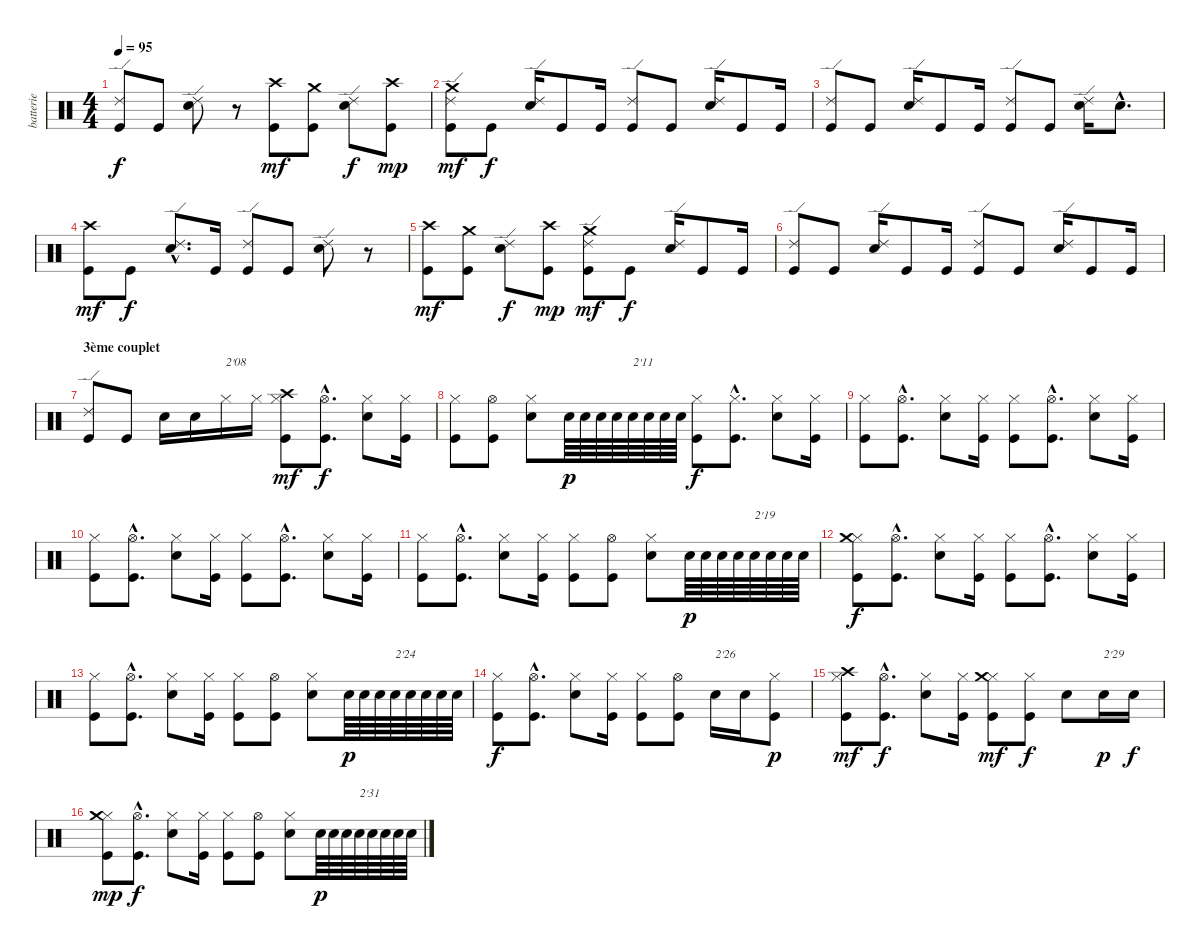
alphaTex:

\track ("batterie" "batterie") {instrument percussion}
\staff {score}
\articulation defaults
\ts (4 4)
\tempo 95
\clef neutral
\ks c
("Ride (edge) 2" "Kick (hit)").8{dy f} "Kick (hit)".8 ("Ride (edge) 2" "Electric Snare (hit)").8 r.8 ("Kick (hit)" "Crash high (hit)").8{dy mf} ("Kick (hit)" "Crash medium (hit)").8 ("Ride (edge) 2" "Electric Snare (hit)").8{dy f} ("Kick (hit)" "Crash high (hit)").8{dy mp} |
("Ride (edge) 2" "Kick (hit)" "Crash medium (hit)").8{dy mf} "Kick (hit)".8{dy f} ("Ride (edge) 2" "Electric Snare (hit)").16 "Kick (hit)".8 "Kick (hit)".16 ("Ride (edge) 2" "Kick (hit)").8 "Kick (hit)".8 ("Ride (edge) 2" "Electric Snare (hit)").16 "Kick (hit)".8 "Kick (hit)".16 |
("Ride (edge) 2" "Kick (hit)").8 "Kick (hit)".8 ("Ride (edge) 2" "Electric Snare (hit)").16 "Kick (hit)".8 "Kick (hit)".16 ("Ride (edge) 2" "Kick (hit)").8 "Kick (hit)".8 ("Ride (edge) 2" "Electric Snare (hit)").16 "Electric Snare (hit)"{hac}.8{d} |
("Kick (hit)" "Crash high (hit)").8{dy mf} "Kick (hit)".8{dy f} ("Ride (edge) 2"{hac} "Electric Snare (hit)"{hac}).8{d} "Kick (hit)".16 ("Ride (edge) 2" "Kick (hit)").8 "Kick (hit)".8 ("Ride (edge) 2" "Electric Snare (hit)").8 r.8 |
("Kick (hit)" "Crash high (hit)").8{dy mf} ("Kick (hit)" "Crash medium (hit)").8 ("Ride (edge) 2" "Electric Snare (hit)").8{dy f} ("Kick (hit)" "Crash high (hit)").8{dy mp} ("Ride (edge) 2" "Kick (hit)" "Crash medium (hit)").8{dy mf} "Kick (hit)".8{dy f} ("Ride (edge) 2" "Electric Snare (hit)").16 "Kick (hit)".8 "Kick (hit)".16 |
("Ride (edge) 2" "Kick (hit)").8 "Kick (hit)".8 ("Ride (edge) 2" "Electric Snare (hit)").16 "Kick (hit)".8 "Kick (hit)".16 ("Ride (edge) 2" "Kick (hit)").8 "Kick (hit)".8 ("Ride (edge) 2" "Electric Snare (hit)").16 "Kick (hit)".8 "Kick (hit)".16 |
\section ("" "3ème couplet")
("Ride (edge) 2" "Kick (hit)").8 "Kick (hit)".8 "Electric Snare (hit)".16 "Electric Snare (hit)".16 "Hi-Hat (closed)".16{txt "2'08"} "Hi-Hat (closed)".16 ("Hi-Hat (closed)" "Kick (hit)" "Crash high (hit)").8{dy mf} ("Hi-Hat (open)"{hac} "Kick (hit)"{hac}).8{d dy f} ("Hi-Hat (closed)" "Electric Snare (hit)").8 ("Hi-Hat (closed)" "Kick (hit)").16 |
("Hi-Hat (closed)" "Kick (hit)").8 ("Hi-Hat (open)" "Kick (hit)").8 ("Hi-Hat (closed)" "Electric Snare (hit)").8 "Electric Snare (hit)".64{dy p} "Electric Snare (hit)".64 "Electric Snare (hit)".64 "Electric Snare (hit)".64 "Electric Snare (hit)".64{txt "2'11"} "Electric Snare (hit)".64 "Electric Snare (hit)".64 "Electric Snare (hit)".64 ("Hi-Hat (closed)" "Kick (hit)").8{dy f} ("Hi-Hat (closed)"{hac} "Kick (hit)"{hac}).8{d} ("Hi-Hat (closed)" "Electric Snare (hit)").8 ("Hi-Hat (closed)" "Kick (hit)").16 |
("Hi-Hat (closed)" "Kick (hit)").8 ("Hi-Hat (open)"{hac} "Kick (hit)"{hac}).8{d} ("Hi-Hat (closed)" "Electric Snare (hit)").8 ("Hi-Hat (closed)" "Kick (hit)").16 ("Hi-Hat (closed)" "Kick (hit)").8 ("Hi-Hat (open)"{hac} "Kick (hit)"{hac}).8{d} ("Hi-Hat (closed)" "Electric Snare (hit)").8 ("Hi-Hat (closed)" "Kick (hit)").16 |
("Hi-Hat (closed)" "Kick (hit)").8 ("Hi-Hat (open)"{hac} "Kick (hit)"{hac}).8{d} ("Hi-Hat (closed)" "Electric Snare (hit)").8 ("Hi-Hat (closed)" "Kick (hit)").16 ("Hi-Hat (closed)" "Kick (hit)").8 ("Hi-Hat (open)"{hac} "Kick (hit)"{hac}).8{d} ("Hi-Hat (closed)" "Electric Snare (hit)").8 ("Hi-Hat (closed)" "Kick (hit)").16 |
("Hi-Hat (closed)" "Kick (hit)").8 ("Hi-Hat (open)"{hac} "Kick (hit)"{hac}).8{d} ("Hi-Hat (closed)" "Electric Snare (hit)").8 ("Hi-Hat (closed)" "Kick (hit)").16 ("Hi-Hat (closed)" "Kick (hit)").8 ("Hi-Hat (open)" "Kick (hit)").8 ("Hi-Hat (closed)" "Electric Snare (hit)").8 "Electric Snare (hit)".64{dy p} "Electric Snare (hit)".64 "Electric Snare (hit)".64 "Electric Snare (hit)".64 "Electric Snare (hit)".64{txt "2'19"} "Electric Snare (hit)".64 "Electric Snare (hit)".64 "Electric Snare (hit)".64 |
("Hi-Hat (closed)" "Kick (hit)" "Crash medium (hit)").8{dy f} ("Hi-Hat (open)"{hac} "Kick (hit)"{hac}).8{d} ("Hi-Hat (closed)" "Electric Snare (hit)").8 ("Hi-Hat (closed)" "Kick (hit)").16 ("Hi-Hat (closed)" "Kick (hit)").8 ("Hi-Hat (open)"{hac} "Kick (hit)"{hac}).8{d} ("Hi-Hat (closed)" "Electric Snare (hit)").8 ("Hi-Hat (closed)" "Kick (hit)").16 |
("Hi-Hat (closed)" "Kick (hit)").8 ("Hi-Hat (open)"{hac} "Kick (hit)"{hac}).8{d} ("Hi-Hat (closed)" "Electric Snare (hit)").8 ("Hi-Hat (closed)" "Kick (hit)").16 ("Hi-Hat (closed)" "Kick (hit)").8 ("Hi-Hat (open)" "Kick (hit)").8 ("Hi-Hat (closed)" "Electric Snare (hit)").8 "Electric Snare (hit)".64{dy p} "Electric Snare (hit)".64 "Electric Snare (hit)".64 "Electric Snare (hit)".64{txt "2'24"} "Electric Snare (hit)".64 "Electric Snare (hit)".64 "Electric Snare (hit)".64 "Electric Snare (hit)".64 |
("Hi-Hat (closed)" "Kick (hit)").8{dy f} ("Hi-Hat (open)"{hac} "Kick (hit)"{hac}).8{d} ("Hi-Hat (closed)" "Electric Snare (hit)").8 ("Hi-Hat (closed)" "Kick (hit)").16 ("Hi-Hat (closed)" "Kick (hit)").8 ("Hi-Hat (open)" "Kick (hit)").8 "Electric Snare (hit)".16{txt "2'26"} "Electric Snare (hit)".16 ("Hi-Hat (closed)" "Kick (hit)").8{dy p} |
("Hi-Hat (closed)" "Kick (hit)" "Crash high (hit)").8{dy mf} ("Hi-Hat (open)"{hac} "Kick (hit)"{hac}).8{d dy f} ("Hi-Hat (closed)" "Electric Snare (hit)").8 ("Hi-Hat (closed)" "Kick (hit)").16 ("Hi-Hat (closed)" "Kick (hit)" "Crash medium (hit)").8{dy mf} ("Hi-Hat (closed)" "Kick (hit)").8{dy f} "Electric Snare (hit)".8 "Electric Snare (hit)".16{txt "2'29" dy p} "Electric Snare (hit)".16{dy f} |
("Hi-Hat (closed)" "Kick (hit)" "Crash medium (hit)").8{dy mp} ("Hi-Hat (open)"{hac} "Kick (hit)"{hac}).8{d dy f} ("Hi-Hat (closed)" "Electric Snare (hit)").8 ("Hi-Hat (closed)" "Kick (hit)").16 ("Hi-Hat (closed)" "Kick (hit)").8 ("Hi-Hat (open)" "Kick (hit)").8 ("Hi-Hat (closed)" "Electric Snare (hit)").8 "Electric Snare (hit)".64{dy p} "Electric Snare (hit)".64 "Electric Snare (hit)".64 "Electric Snare (hit)".64{txt "2'31"} "Electric Snare (hit)".64 "Electric Snare (hit)".64 "Electric Snare (hit)".64 "Electric Snare (hit)".64
